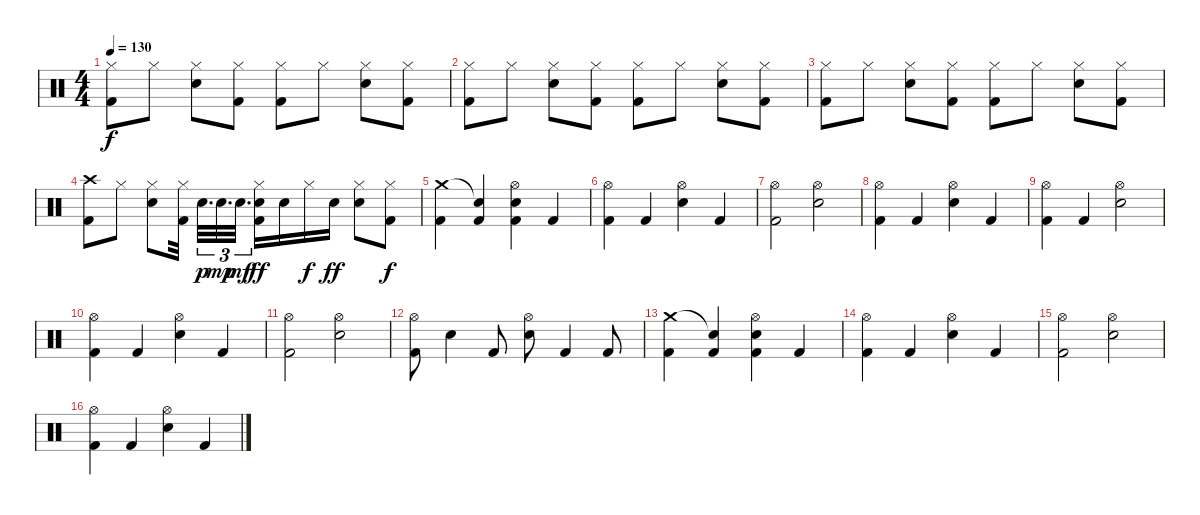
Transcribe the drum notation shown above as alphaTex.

\track (" " " ") {solo instrument percussion}
\staff {score}
\articulation defaults
\ts (4 4)
\tempo 130
\clef neutral
\ks c
("Hi-Hat (closed)" "Kick (hit) 2").8{dy f} "Hi-Hat (closed)".8 ("Hi-Hat (closed)" "Electric Snare (hit)").8 ("Hi-Hat (closed)" "Kick (hit) 2").8 ("Hi-Hat (closed)" "Kick (hit) 2").8 "Hi-Hat (closed)".8 ("Hi-Hat (closed)" "Electric Snare (hit)").8 ("Hi-Hat (closed)" "Kick (hit) 2").8 |
("Hi-Hat (closed)" "Kick (hit) 2").8 "Hi-Hat (closed)".8 ("Hi-Hat (closed)" "Electric Snare (hit)").8 ("Hi-Hat (closed)" "Kick (hit) 2").8 ("Hi-Hat (closed)" "Kick (hit) 2").8 "Hi-Hat (closed)".8 ("Hi-Hat (closed)" "Electric Snare (hit)").8 ("Hi-Hat (closed)" "Kick (hit) 2").8 |
("Hi-Hat (closed)" "Kick (hit) 2").8 "Hi-Hat (closed)".8 ("Hi-Hat (closed)" "Electric Snare (hit)").8 ("Hi-Hat (closed)" "Kick (hit) 2").8 ("Hi-Hat (closed)" "Kick (hit) 2").8 "Hi-Hat (closed)".8 ("Hi-Hat (closed)" "Electric Snare (hit)").8 ("Hi-Hat (closed)" "Kick (hit) 2").8 |
("Crash high (hit)" "Kick (hit) 2").8 "Hi-Hat (closed)".8 ("Hi-Hat (closed)" "Electric Snare (hit)").8 ("Hi-Hat (closed)" "Kick (hit) 2").32{beam splitsecondary} "Electric Snare (hit)".32{d tu (3 2) dy p} "Electric Snare (hit)".32{d tu (3 2) dy mp} "Electric Snare (hit)".32{d tu (3 2) dy mf} ("Hi-Hat (closed)" "Electric Snare (hit)" "Kick (hit) 2").16{dy ff} "Electric Snare (hit)".16 "Hi-Hat (closed)".16{dy f} "Electric Snare (hit)".16{dy ff} ("Hi-Hat (closed)" "Electric Snare (hit)").8 ("Hi-Hat (closed)" "Kick (hit) 2").8{dy f} |
("Crash medium (hit)" "Kick (hit) 2").4 ("Snare (hit)"{t} "Kick (hit) 2").4 ("Hi-Hat (open)" "Electric Snare (hit)" "Kick (hit) 2").4 "Kick (hit) 2".4 |
("Hi-Hat (open)" "Kick (hit) 2").4 "Kick (hit) 2".4 ("Hi-Hat (open)" "Electric Snare (hit)").4 "Kick (hit) 2".4 |
("Hi-Hat (open)" "Kick (hit) 2").2 ("Hi-Hat (open)" "Electric Snare (hit)").2 |
("Hi-Hat (open)" "Kick (hit) 2").4 "Kick (hit) 2".4 ("Hi-Hat (open)" "Electric Snare (hit)").4 "Kick (hit) 2".4 |
("Hi-Hat (open)" "Kick (hit) 2").4 "Kick (hit) 2".4 ("Hi-Hat (open)" "Electric Snare (hit)").2 |
("Hi-Hat (open)" "Kick (hit) 2").4 "Kick (hit) 2".4 ("Hi-Hat (open)" "Electric Snare (hit)").4 "Kick (hit) 2".4 |
("Hi-Hat (open)" "Kick (hit) 2").2 ("Hi-Hat (open)" "Electric Snare (hit)").2 |
("Hi-Hat (open)" "Kick (hit) 2").8 "Electric Snare (hit)".4 "Kick (hit) 2".8 ("Hi-Hat (open)" "Electric Snare (hit)").8 "Kick (hit) 2".4 "Kick (hit) 2".8 |
("Crash medium (hit)" "Kick (hit) 2").4 ("Snare (hit)"{t} "Kick (hit) 2").4 ("Hi-Hat (open)" "Electric Snare (hit)" "Kick (hit) 2").4 "Kick (hit) 2".4 |
("Hi-Hat (open)" "Kick (hit) 2").4 "Kick (hit) 2".4 ("Hi-Hat (open)" "Electric Snare (hit)").4 "Kick (hit) 2".4 |
("Hi-Hat (open)" "Kick (hit) 2").2 ("Hi-Hat (open)" "Electric Snare (hit)").2 |
("Hi-Hat (open)" "Kick (hit) 2").4 "Kick (hit) 2".4 ("Hi-Hat (open)" "Electric Snare (hit)").4 "Kick (hit) 2".4
